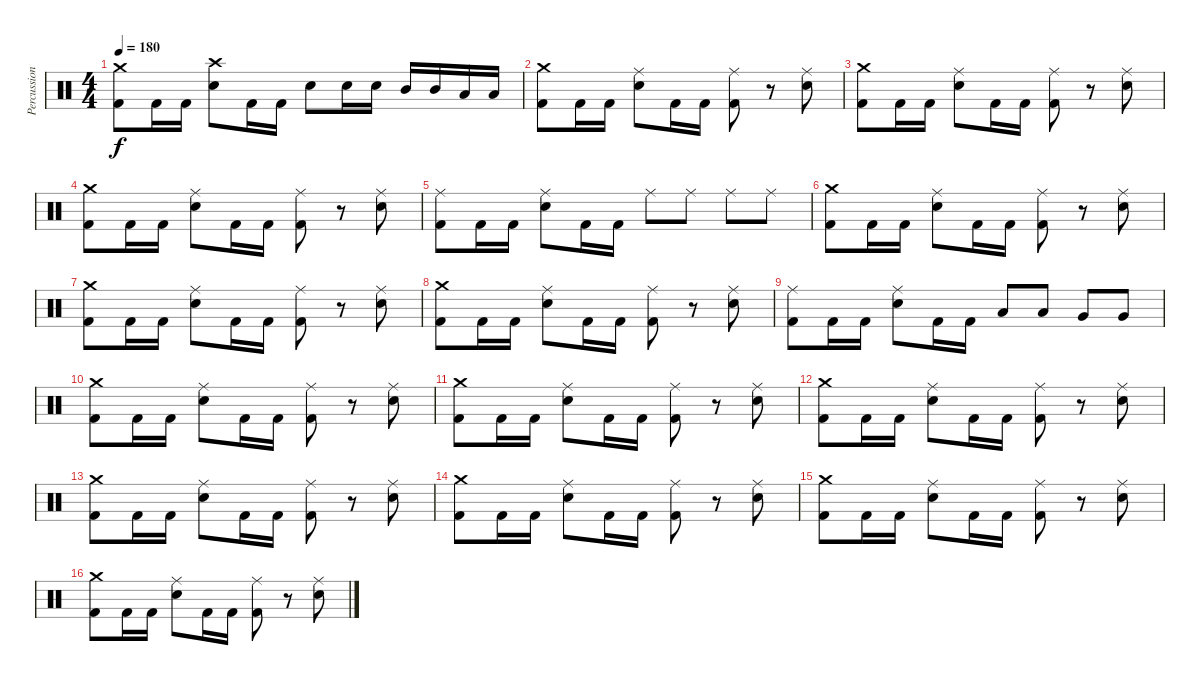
\track ("Percussion" "Percussion") {instrument percussion}
\staff {score}
\articulation defaults
\ts (4 4)
\tempo 180
\clef neutral
\ks c
("Kick (hit) 2" "Crash medium (hit)").8{dy f} "Kick (hit) 2".16 "Kick (hit) 2".16 ("Electric Snare (hit)" "Crash high (hit)").8 "Kick (hit) 2".16 "Kick (hit) 2".16 "Electric Snare (hit)".8 "Electric Snare (hit)".16 "Electric Snare (hit)".16 "Mid Tom (hit)".16 "Mid Tom (hit)".16 "Low Tom (hit)".16 "Low Tom (hit)".16 |
("Kick (hit) 2" "Crash medium (hit)").8 "Kick (hit) 2".16 "Kick (hit) 2".16 ("Electric Snare (hit)" "Ride (middle)").8 "Kick (hit) 2".16 "Kick (hit) 2".16 ("Kick (hit) 2" "Ride (middle)").8 r.8 ("Electric Snare (hit)" "Ride (middle)").8 |
("Kick (hit) 2" "Crash medium (hit)").8 "Kick (hit) 2".16 "Kick (hit) 2".16 ("Electric Snare (hit)" "Ride (middle)").8 "Kick (hit) 2".16 "Kick (hit) 2".16 ("Kick (hit) 2" "Ride (middle)").8 r.8 ("Electric Snare (hit)" "Ride (middle)").8 |
("Kick (hit) 2" "Crash medium (hit)").8 "Kick (hit) 2".16 "Kick (hit) 2".16 ("Electric Snare (hit)" "Ride (middle)").8 "Kick (hit) 2".16 "Kick (hit) 2".16 ("Kick (hit) 2" "Ride (middle)").8 r.8 ("Electric Snare (hit)" "Ride (middle)").8 |
("Kick (hit) 2" "Ride (middle)").8 "Kick (hit) 2".16 "Kick (hit) 2".16 ("Electric Snare (hit)" "Ride (middle)").8 "Kick (hit) 2".16 "Kick (hit) 2".16 "Ride (middle)".8 "Ride (middle)".8 "Ride (middle)".8 "Ride (middle)".8 |
("Kick (hit) 2" "Crash medium (hit)").8 "Kick (hit) 2".16 "Kick (hit) 2".16 ("Electric Snare (hit)" "Ride (middle)").8 "Kick (hit) 2".16 "Kick (hit) 2".16 ("Kick (hit) 2" "Ride (middle)").8 r.8 ("Electric Snare (hit)" "Ride (middle)").8 |
("Kick (hit) 2" "Crash medium (hit)").8 "Kick (hit) 2".16 "Kick (hit) 2".16 ("Electric Snare (hit)" "Ride (middle)").8 "Kick (hit) 2".16 "Kick (hit) 2".16 ("Kick (hit) 2" "Ride (middle)").8 r.8 ("Electric Snare (hit)" "Ride (middle)").8 |
("Kick (hit) 2" "Crash medium (hit)").8 "Kick (hit) 2".16 "Kick (hit) 2".16 ("Electric Snare (hit)" "Ride (middle)").8 "Kick (hit) 2".16 "Kick (hit) 2".16 ("Kick (hit) 2" "Ride (middle)").8 r.8 ("Electric Snare (hit)" "Ride (middle)").8 |
("Kick (hit) 2" "Ride (middle)").8 "Kick (hit) 2".16 "Kick (hit) 2".16 ("Electric Snare (hit)" "Ride (middle)").8 "Kick (hit) 2".16 "Kick (hit) 2".16 "Low Tom (hit)".8 "Low Tom (hit)".8 "Very Low Tom (hit)".8 "Very Low Tom (hit)".8 |
("Kick (hit) 2" "Crash medium (hit)").8 "Kick (hit) 2".16 "Kick (hit) 2".16 ("Electric Snare (hit)" "Ride (middle)").8 "Kick (hit) 2".16 "Kick (hit) 2".16 ("Kick (hit) 2" "Ride (middle)").8 r.8 ("Electric Snare (hit)" "Ride (middle)").8 |
("Kick (hit) 2" "Crash medium (hit)").8 "Kick (hit) 2".16 "Kick (hit) 2".16 ("Electric Snare (hit)" "Ride (middle)").8 "Kick (hit) 2".16 "Kick (hit) 2".16 ("Kick (hit) 2" "Ride (middle)").8 r.8 ("Electric Snare (hit)" "Ride (middle)").8 |
("Kick (hit) 2" "Crash medium (hit)").8 "Kick (hit) 2".16 "Kick (hit) 2".16 ("Electric Snare (hit)" "Ride (middle)").8 "Kick (hit) 2".16 "Kick (hit) 2".16 ("Kick (hit) 2" "Ride (middle)").8 r.8 ("Electric Snare (hit)" "Ride (middle)").8 |
("Kick (hit) 2" "Crash medium (hit)").8 "Kick (hit) 2".16 "Kick (hit) 2".16 ("Electric Snare (hit)" "Ride (middle)").8 "Kick (hit) 2".16 "Kick (hit) 2".16 ("Kick (hit) 2" "Ride (middle)").8 r.8 ("Electric Snare (hit)" "Ride (middle)").8 |
("Kick (hit) 2" "Crash medium (hit)").8 "Kick (hit) 2".16 "Kick (hit) 2".16 ("Electric Snare (hit)" "Ride (middle)").8 "Kick (hit) 2".16 "Kick (hit) 2".16 ("Kick (hit) 2" "Ride (middle)").8 r.8 ("Electric Snare (hit)" "Ride (middle)").8 |
("Kick (hit) 2" "Crash medium (hit)").8 "Kick (hit) 2".16 "Kick (hit) 2".16 ("Electric Snare (hit)" "Ride (middle)").8 "Kick (hit) 2".16 "Kick (hit) 2".16 ("Kick (hit) 2" "Ride (middle)").8 r.8 ("Electric Snare (hit)" "Ride (middle)").8 |
("Kick (hit) 2" "Crash medium (hit)").8 "Kick (hit) 2".16 "Kick (hit) 2".16 ("Electric Snare (hit)" "Ride (middle)").8 "Kick (hit) 2".16 "Kick (hit) 2".16 ("Kick (hit) 2" "Ride (middle)").8 r.8 ("Electric Snare (hit)" "Ride (middle)").8
